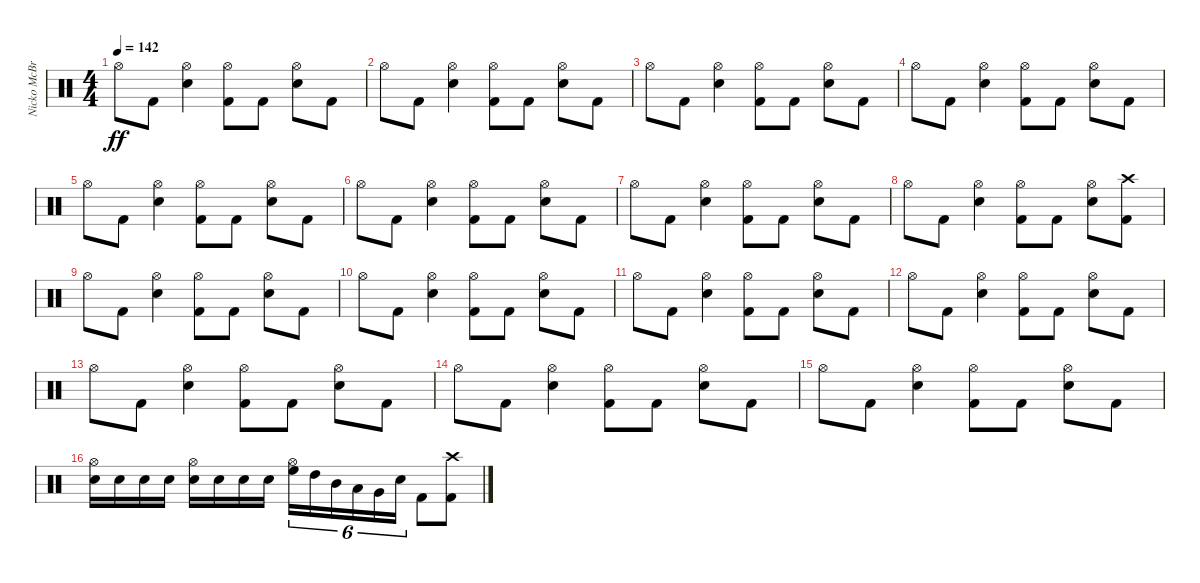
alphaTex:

\track ("Nicko McBrain" "Nicko McBr") {instrument percussion}
\staff {score}
\articulation defaults
\ts (4 4)
\tempo 142
\clef neutral
\ks c "Hi-Hat (open)".8{dy ff} "Kick (hit) 2".8
("Snare (hit) 2" "Hi-Hat (open)").4 ("Kick (hit) 2" "Hi-Hat (open)").8 "Kick (hit) 2".8 ("Snare (hit) 2" "Hi-Hat (open)").8 "Kick (hit) 2".8 |
"Hi-Hat (open)".8 "Kick (hit) 2".8 ("Snare (hit) 2" "Hi-Hat (open)").4 ("Kick (hit) 2" "Hi-Hat (open)").8 "Kick (hit) 2".8 ("Snare (hit) 2" "Hi-Hat (open)").8 "Kick (hit) 2".8 |
"Hi-Hat (open)".8 "Kick (hit) 2".8 ("Snare (hit) 2" "Hi-Hat (open)").4 ("Kick (hit) 2" "Hi-Hat (open)").8 "Kick (hit) 2".8 ("Snare (hit) 2" "Hi-Hat (open)").8 "Kick (hit) 2".8 |
"Hi-Hat (open)".8 "Kick (hit) 2".8 ("Snare (hit) 2" "Hi-Hat (open)").4 ("Kick (hit) 2" "Hi-Hat (open)").8 "Kick (hit) 2".8 ("Snare (hit) 2" "Hi-Hat (open)").8 "Kick (hit) 2".8 |
"Hi-Hat (open)".8 "Kick (hit) 2".8 ("Snare (hit) 2" "Hi-Hat (open)").4 ("Kick (hit) 2" "Hi-Hat (open)").8 "Kick (hit) 2".8 ("Snare (hit) 2" "Hi-Hat (open)").8 "Kick (hit) 2".8 |
"Hi-Hat (open)".8 "Kick (hit) 2".8 ("Snare (hit) 2" "Hi-Hat (open)").4 ("Kick (hit) 2" "Hi-Hat (open)").8 "Kick (hit) 2".8 ("Snare (hit) 2" "Hi-Hat (open)").8 "Kick (hit) 2".8 |
"Hi-Hat (open)".8 "Kick (hit) 2".8 ("Snare (hit) 2" "Hi-Hat (open)").4 ("Kick (hit) 2" "Hi-Hat (open)").8 "Kick (hit) 2".8 ("Snare (hit) 2" "Hi-Hat (open)").8 "Kick (hit) 2".8 |
"Hi-Hat (open)".8 "Kick (hit) 2".8 ("Snare (hit) 2" "Hi-Hat (open)").4 ("Kick (hit) 2" "Hi-Hat (open)").8 "Kick (hit) 2".8 ("Snare (hit) 2" "Hi-Hat (open)").8 ("Kick (hit) 2" "Crash high (hit)").8 |
"Hi-Hat (open)".8 "Kick (hit) 2".8 ("Snare (hit) 2" "Hi-Hat (open)").4 ("Kick (hit) 2" "Hi-Hat (open)").8 "Kick (hit) 2".8 ("Snare (hit) 2" "Hi-Hat (open)").8 "Kick (hit) 2".8 |
"Hi-Hat (open)".8 "Kick (hit) 2".8 ("Snare (hit) 2" "Hi-Hat (open)").4 ("Kick (hit) 2" "Hi-Hat (open)").8 "Kick (hit) 2".8 ("Snare (hit) 2" "Hi-Hat (open)").8 "Kick (hit) 2".8 |
"Hi-Hat (open)".8 "Kick (hit) 2".8 ("Snare (hit) 2" "Hi-Hat (open)").4 ("Kick (hit) 2" "Hi-Hat (open)").8 "Kick (hit) 2".8 ("Snare (hit) 2" "Hi-Hat (open)").8 "Kick (hit) 2".8 |
"Hi-Hat (open)".8 "Kick (hit) 2".8 ("Snare (hit) 2" "Hi-Hat (open)").4 ("Kick (hit) 2" "Hi-Hat (open)").8 "Kick (hit) 2".8 ("Snare (hit) 2" "Hi-Hat (open)").8 "Kick (hit) 2".8 |
"Hi-Hat (open)".8 "Kick (hit) 2".8 ("Snare (hit) 2" "Hi-Hat (open)").4 ("Kick (hit) 2" "Hi-Hat (open)").8 "Kick (hit) 2".8 ("Snare (hit) 2" "Hi-Hat (open)").8 "Kick (hit) 2".8 |
"Hi-Hat (open)".8 "Kick (hit) 2".8 ("Snare (hit) 2" "Hi-Hat (open)").4 ("Kick (hit) 2" "Hi-Hat (open)").8 "Kick (hit) 2".8 ("Snare (hit) 2" "Hi-Hat (open)").8 "Kick (hit) 2".8 |
"Hi-Hat (open)".8 "Kick (hit) 2".8 ("Snare (hit) 2" "Hi-Hat (open)").4 ("Kick (hit) 2" "Hi-Hat (open)").8 "Kick (hit) 2".8 ("Snare (hit) 2" "Hi-Hat (open)").8 "Kick (hit) 2".8 |
("Snare (hit) 2" "Hi-Hat (open)").16 "Snare (hit) 2".16 "Snare (hit) 2".16 "Snare (hit) 2".16 ("Snare (hit) 2" "Hi-Hat (open)").16 "Snare (hit) 2".16 "Snare (hit) 2".16 "Snare (hit) 2".16 ("Hi-Hat (open)" "High Floor Tom (hit)").16{tu (6 4)} "High Tom (hit)".16{tu (6 4)} "Mid Tom (hit)".16{tu (6 4)} "Low Tom (hit)".16{tu (6 4)} "Very Low Tom (hit)".16{tu (6 4)} "Electric Snare (hit)".16{tu (6 4)} "Kick (hit) 2".8 ("Kick (hit) 2" "Crash high (hit)").8
